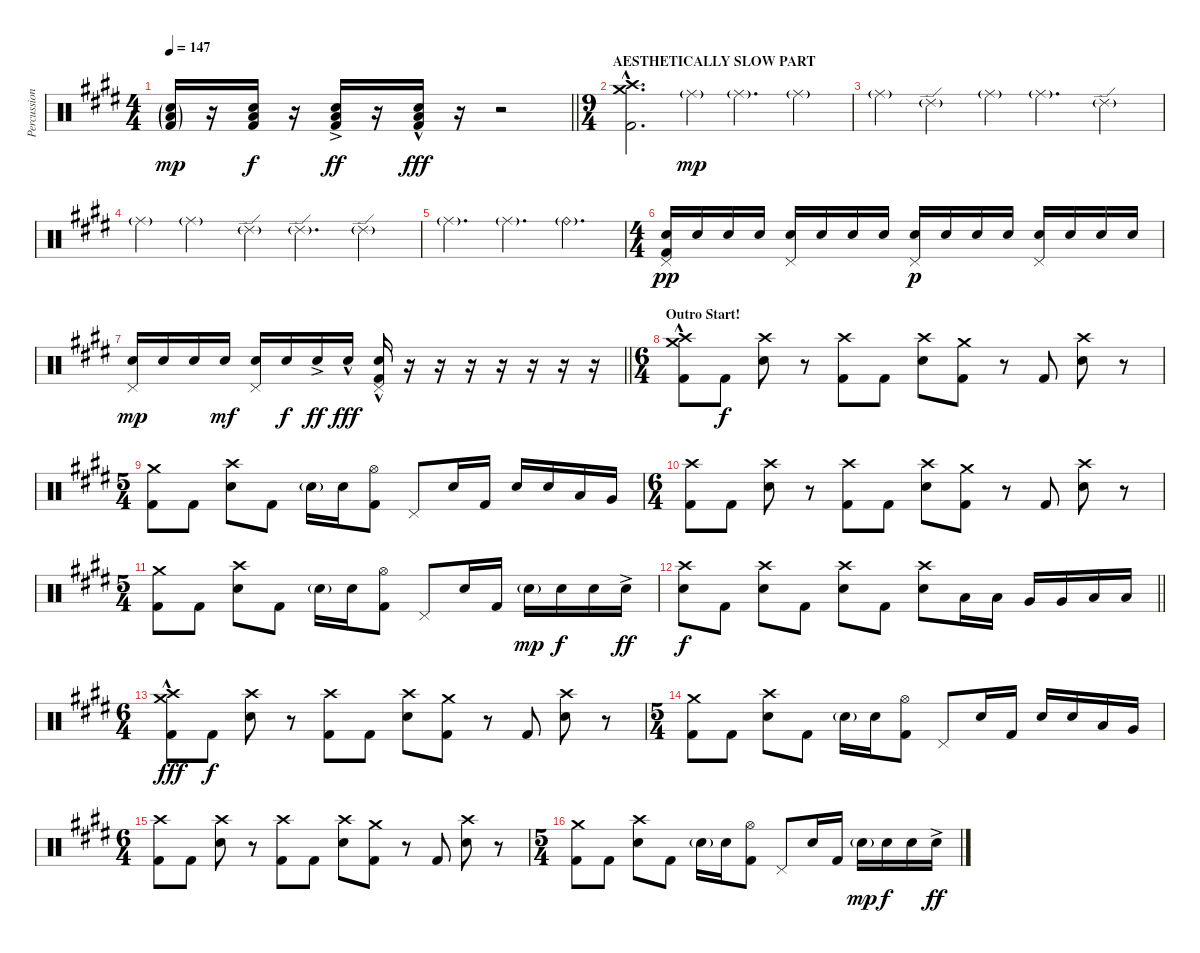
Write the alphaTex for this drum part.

\track ("Percussion" "Percussion") {instrument percussion}
\staff {score}
\articulation defaults
\ts (4 4)
\tempo 147
\clef neutral
\barLineRight lightlight
\ks e
("Low Floor Tom (hit)"{g} "Snare (hit) 2"{g} "Kick (hit) 2"{g}).16{dy mp} r.16 ("Low Floor Tom (hit)" "Snare (hit) 2" "Kick (hit) 2").16{dy f} r.16 ("Low Floor Tom (hit)"{ac} "Snare (hit) 2"{ac} "Kick (hit) 2"{ac}).16{dy ff} r.16 ("Low Floor Tom (hit)"{hac} "Snare (hit) 2"{hac} "Kick (hit) 2"{hac}).16{dy fff} r.16 r.2 |
\ts (9 4)
\section ("" "AESTHETICALLY SLOW PART")
("Crash high (hit)"{hac} "Crash medium (hit)"{hac} "Kick (hit) 2"{hac}).2{d} "Ride (middle)"{g}.4{dy mp} "Ride (middle)"{g}.2{d} "Ride (middle)"{g}.2 |
"Ride (middle)"{g}.4 "Ride (edge) 2"{g}.2 "Ride (middle)"{g}.4 "Ride (middle)"{g}.2{d} "Ride (edge) 2"{g}.2 |
"Ride (middle)"{g}.4 "Ride (middle)"{g}.2 "Ride (edge) 2"{g}.4 "Ride (edge) 2"{g}.2{d} "Ride (edge) 2"{g}.2 |
"Ride (middle)"{g}.2{d} "Ride (middle)"{g}.2{d} "Ride (bell)"{g}.2{d} |
\ts (4 4)
("Pedal Hi-Hat (hit)" "Snare (hit) 2" "Kick (hit) 2").16{dy pp} "Snare (hit) 2".16 "Snare (hit) 2".16 "Snare (hit) 2".16 ("Pedal Hi-Hat (hit)" "Snare (hit) 2").16 "Snare (hit) 2".16 "Snare (hit) 2".16 "Snare (hit) 2".16 ("Pedal Hi-Hat (hit)" "Snare (hit) 2").16{dy p} "Snare (hit) 2".16 "Snare (hit) 2".16 "Snare (hit) 2".16 ("Pedal Hi-Hat (hit)" "Snare (hit) 2").16 "Snare (hit) 2".16 "Snare (hit) 2".16 "Snare (hit) 2".16 |
\barLineRight lightlight
("Pedal Hi-Hat (hit)" "Snare (hit) 2").16{dy mp} "Snare (hit) 2".16 "Snare (hit) 2".16 "Snare (hit) 2".16{dy mf} ("Pedal Hi-Hat (hit)" "Snare (hit) 2").16 "Snare (hit) 2".16{dy f} "Snare (hit) 2"{ac}.16{dy ff} "Snare (hit) 2"{hac}.16{dy fff} ("Pedal Hi-Hat (hit)"{hac} "Snare (hit) 2"{hac} "Kick (hit) 2"{hac}).16 r.16 r.16 r.16 r.16 r.16 r.16 r.16 |
\ts (6 4)
\section ("" "Outro Start!")
("Crash high (hit)"{hac} "Crash medium (hit)"{hac} "Kick (hit) 2"{hac}).8 "Kick (hit) 2".8{dy f} ("Crash high (hit)" "Snare (hit) 2").8 r.8 ("Crash high (hit)" "Kick (hit) 2").8 "Kick (hit) 2".8 ("Crash high (hit)" "Snare (hit) 2").8 ("Crash medium (hit)" "Kick (hit) 2").8 r.8 "Kick (hit) 2".8 ("Crash high (hit)" "Snare (hit) 2").8 r.8 |
\ts (5 4)
("Crash medium (hit)" "Kick (hit) 2").8 "Kick (hit) 2".8 ("Crash high (hit)" "Snare (hit) 2").8 "Kick (hit) 2".8 "Snare (hit) 2"{g}.16 "Snare (hit) 2".16 ("Hi-Hat (open)" "Kick (hit) 2").8 "Pedal Hi-Hat (hit)".8 "Snare (hit) 2".16 "Kick (hit) 2".16 "Snare (hit) 2".16 "Snare (hit) 2".16 "Low Tom (hit)".16 "Very Low Tom (hit)".16 |
\ts (6 4)
("Crash high (hit)" "Kick (hit) 2").8 "Kick (hit) 2".8 ("Crash high (hit)" "Snare (hit) 2").8 r.8 ("Crash high (hit)" "Kick (hit) 2").8 "Kick (hit) 2".8 ("Crash high (hit)" "Snare (hit) 2").8 ("Crash medium (hit)" "Kick (hit) 2").8 r.8 "Kick (hit) 2".8 ("Crash high (hit)" "Snare (hit) 2").8 r.8 |
\ts (5 4)
("Crash medium (hit)" "Kick (hit) 2").8 "Kick (hit) 2".8 ("Crash high (hit)" "Snare (hit) 2").8 "Kick (hit) 2".8 "Snare (hit) 2"{g}.16 "Snare (hit) 2".16 ("Hi-Hat (open)" "Kick (hit) 2").8 "Pedal Hi-Hat (hit)".8 "Snare (hit) 2".16 "Kick (hit) 2".16 "Snare (hit) 2"{g}.16{dy mp} "Snare (hit) 2".16{dy f} "Snare (hit) 2".16 "Snare (hit) 2"{ac}.16{dy ff} |
\barLineRight lightlight
("Crash high (hit)" "Snare (hit) 2").8{dy f} "Kick (hit) 2".8 ("Crash high (hit)" "Snare (hit) 2").8 "Kick (hit) 2".8 ("Crash high (hit)" "Snare (hit) 2").8 "Kick (hit) 2".8 ("Crash high (hit)" "Snare (hit) 2").8 "Low Tom (hit)".16 "Low Tom (hit)".16 "Very Low Tom (hit)".16 "Very Low Tom (hit)".16 "Low Floor Tom (hit)".16 "Low Floor Tom (hit)".16 |
\ts (6 4)
("Crash high (hit)"{hac} "Crash medium (hit)"{hac} "Kick (hit) 2"{hac}).8{dy fff} "Kick (hit) 2".8{dy f} ("Crash high (hit)" "Snare (hit) 2").8 r.8 ("Crash high (hit)" "Kick (hit) 2").8 "Kick (hit) 2".8 ("Crash high (hit)" "Snare (hit) 2").8 ("Crash medium (hit)" "Kick (hit) 2").8 r.8 "Kick (hit) 2".8 ("Crash high (hit)" "Snare (hit) 2").8 r.8 |
\ts (5 4)
("Crash medium (hit)" "Kick (hit) 2").8 "Kick (hit) 2".8 ("Crash high (hit)" "Snare (hit) 2").8 "Kick (hit) 2".8 "Snare (hit) 2"{g}.16 "Snare (hit) 2".16 ("Hi-Hat (open)" "Kick (hit) 2").8 "Pedal Hi-Hat (hit)".8 "Snare (hit) 2".16 "Kick (hit) 2".16 "Snare (hit) 2".16 "Snare (hit) 2".16 "Low Tom (hit)".16 "Very Low Tom (hit)".16 |
\ts (6 4)
("Crash high (hit)" "Kick (hit) 2").8 "Kick (hit) 2".8 ("Crash high (hit)" "Snare (hit) 2").8 r.8 ("Crash high (hit)" "Kick (hit) 2").8 "Kick (hit) 2".8 ("Crash high (hit)" "Snare (hit) 2").8 ("Crash medium (hit)" "Kick (hit) 2").8 r.8 "Kick (hit) 2".8 ("Crash high (hit)" "Snare (hit) 2").8 r.8 |
\ts (5 4)
("Crash medium (hit)" "Kick (hit) 2").8 "Kick (hit) 2".8 ("Crash high (hit)" "Snare (hit) 2").8 "Kick (hit) 2".8 "Snare (hit) 2"{g}.16 "Snare (hit) 2".16 ("Hi-Hat (open)" "Kick (hit) 2").8 "Pedal Hi-Hat (hit)".8 "Snare (hit) 2".16 "Kick (hit) 2".16 "Snare (hit) 2"{g}.16{dy mp} "Snare (hit) 2".16{dy f} "Snare (hit) 2".16 "Snare (hit) 2"{ac}.16{dy ff}
